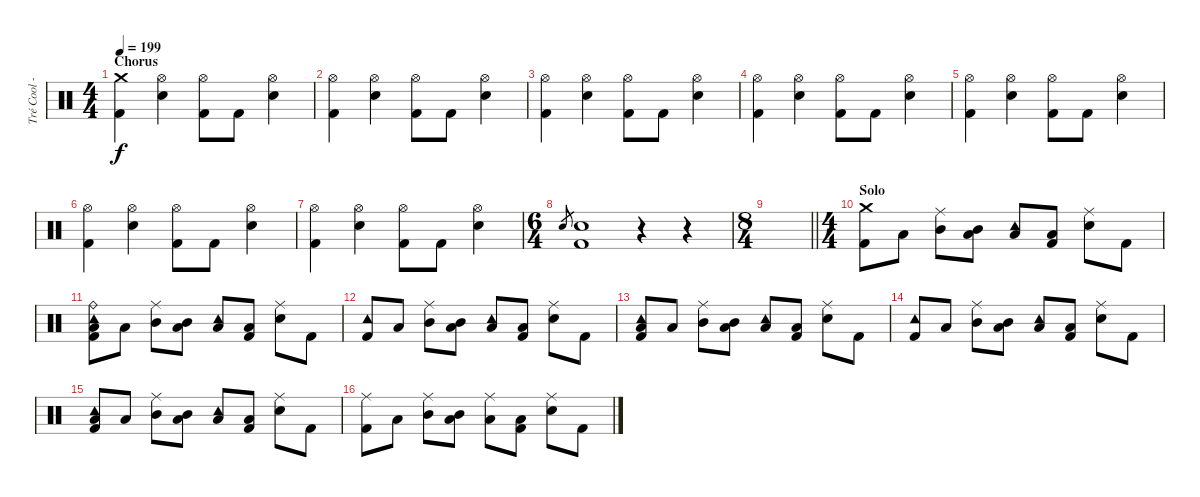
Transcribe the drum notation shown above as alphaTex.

\track ("Tré Cool - Drums" "Tré Cool -") {instrument percussion}
\staff {score}
\articulation defaults
\ts (4 4)
\section ("" "Chorus")
\tempo 199
\clef neutral
\ks c
("Crash medium (hit)" "Kick (hit) 2").4{dy f} ("Hi-Hat (open)" "Electric Snare (hit)").4 ("Hi-Hat (open)" "Kick (hit) 2").8 "Kick (hit) 2".8 ("Hi-Hat (open)" "Electric Snare (hit)").4 |
("Hi-Hat (open)" "Kick (hit) 2").4 ("Hi-Hat (open)" "Electric Snare (hit)").4 ("Hi-Hat (open)" "Kick (hit) 2").8 "Kick (hit) 2".8 ("Hi-Hat (open)" "Electric Snare (hit)").4 |
("Hi-Hat (open)" "Kick (hit) 2").4 ("Hi-Hat (open)" "Electric Snare (hit)").4 ("Hi-Hat (open)" "Kick (hit) 2").8 "Kick (hit) 2".8 ("Hi-Hat (open)" "Electric Snare (hit)").4 |
("Hi-Hat (open)" "Kick (hit) 2").4 ("Hi-Hat (open)" "Electric Snare (hit)").4 ("Hi-Hat (open)" "Kick (hit) 2").8 "Kick (hit) 2".8 ("Hi-Hat (open)" "Electric Snare (hit)").4 |
("Hi-Hat (open)" "Kick (hit) 2").4 ("Hi-Hat (open)" "Electric Snare (hit)").4 ("Hi-Hat (open)" "Kick (hit) 2").8 "Kick (hit) 2".8 ("Hi-Hat (open)" "Electric Snare (hit)").4 |
("Hi-Hat (open)" "Kick (hit) 2").4 ("Hi-Hat (open)" "Electric Snare (hit)").4 ("Hi-Hat (open)" "Kick (hit) 2").8 "Kick (hit) 2".8 ("Hi-Hat (open)" "Electric Snare (hit)").4 |
("Hi-Hat (open)" "Kick (hit) 2").4 ("Hi-Hat (open)" "Electric Snare (hit)").4 ("Hi-Hat (open)" "Kick (hit) 2").8 "Kick (hit) 2".8 ("Hi-Hat (open)" "Electric Snare (hit)").4 |
\ts (6 4)
"Electric Snare (hit)".8{gr} ("Electric Snare (hit)" "Kick (hit) 2").1 r.4 r.4 |
\ts (8 4)
\barLineRight lightlight
|
\ts (4 4)
\section ("" "Solo")
("Crash medium (hit)" "Kick (hit) 2").8 "Low Floor Tom (hit)".8 ("Ride (middle)" "Mid Tom (hit)").8 ("Mid Tom (hit)" "Low Floor Tom (hit)").8 ("Tambourine (hit)" "Low Tom (hit)").8 ("Low Floor Tom (hit)" "Kick (hit) 2").8 ("Ride (middle)" "Electric Snare (hit)").8 "Kick (hit) 2".8 |
("Tambourine (hit)" "Ride (bell)" "Low Floor Tom (hit)" "Kick (hit) 2").8 "Low Floor Tom (hit)".8 ("Ride (middle)" "Mid Tom (hit)").8 ("Mid Tom (hit)" "Low Floor Tom (hit)").8 ("Tambourine (hit)" "Low Tom (hit)").8 ("Low Floor Tom (hit)" "Kick (hit) 2").8 ("Ride (middle)" "Electric Snare (hit)").8 "Kick (hit) 2".8 |
("Tambourine (hit)" "Kick (hit) 2").8 "Low Floor Tom (hit)".8 ("Ride (middle)" "Mid Tom (hit)").8 ("Mid Tom (hit)" "Low Floor Tom (hit)").8 ("Tambourine (hit)" "Low Tom (hit)").8 ("Low Floor Tom (hit)" "Kick (hit) 2").8 ("Ride (middle)" "Electric Snare (hit)").8 "Kick (hit) 2".8 |
("Tambourine (hit)" "Low Floor Tom (hit)" "Kick (hit) 2").8 "Low Floor Tom (hit)".8 ("Ride (middle)" "Mid Tom (hit)").8 ("Mid Tom (hit)" "Low Floor Tom (hit)").8 ("Tambourine (hit)" "Low Tom (hit)").8 ("Low Floor Tom (hit)" "Kick (hit) 2").8 ("Ride (middle)" "Electric Snare (hit)").8 "Kick (hit) 2".8 |
("Tambourine (hit)" "Kick (hit) 2").8 "Low Floor Tom (hit)".8 ("Ride (middle)" "Mid Tom (hit)").8 ("Mid Tom (hit)" "Low Floor Tom (hit)").8 ("Tambourine (hit)" "Low Tom (hit)").8 ("Low Floor Tom (hit)" "Kick (hit) 2").8 ("Ride (middle)" "Electric Snare (hit)").8 "Kick (hit) 2".8 |
("Tambourine (hit)" "Low Floor Tom (hit)" "Kick (hit) 2").8 "Low Floor Tom (hit)".8 ("Ride (middle)" "Mid Tom (hit)").8 ("Mid Tom (hit)" "Low Floor Tom (hit)").8 ("Tambourine (hit)" "Low Tom (hit)").8 ("Low Floor Tom (hit)" "Kick (hit) 2").8 ("Ride (middle)" "Electric Snare (hit)").8 "Kick (hit) 2".8 |
("Ride (middle)" "Kick (hit) 2").8 "Low Floor Tom (hit)".8 ("Ride (middle)" "Mid Tom (hit)").8 ("Mid Tom (hit)" "Low Floor Tom (hit)").8 ("Ride (middle)" "Low Tom (hit)").8 ("Low Floor Tom (hit)" "Kick (hit) 2").8 ("Ride (middle)" "Electric Snare (hit)").8 "Kick (hit) 2".8
